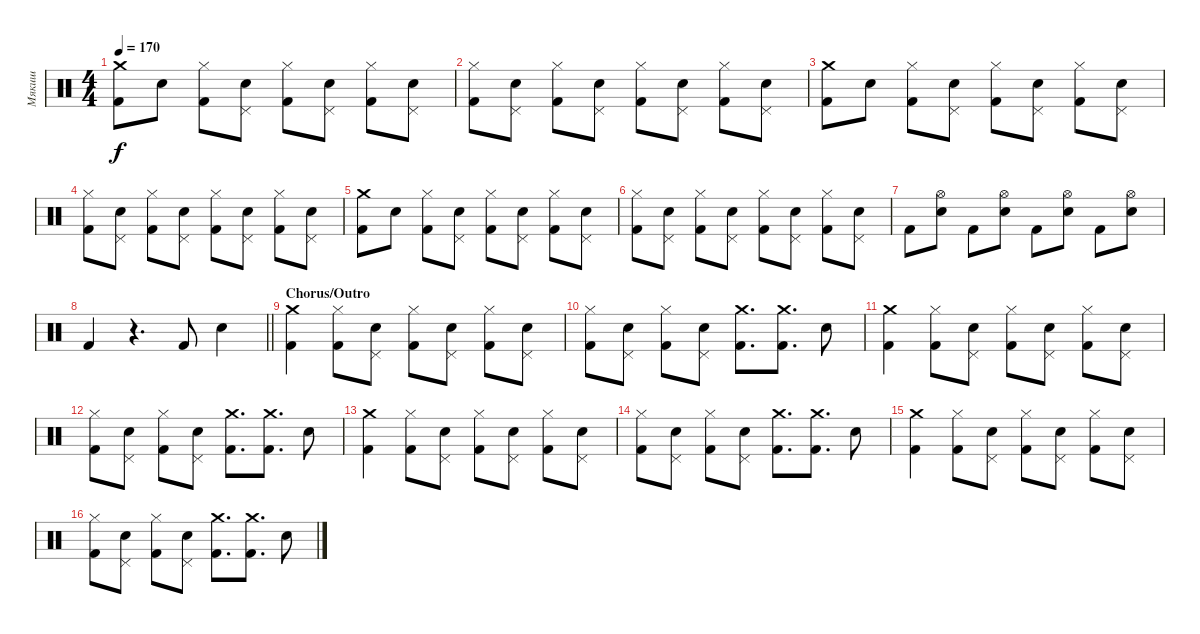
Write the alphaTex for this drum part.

\track ("Мякиш" "Мякиш") {instrument percussion}
\staff {score}
\articulation defaults
\ts (4 4)
\tempo 170
\clef neutral
\ks c
("Crash medium (hit)" "Kick (hit) 2").8{dy f} "Electric Snare (hit)".8 ("Hi-Hat (closed)" "Kick (hit) 2").8 ("Pedal Hi-Hat (hit)" "Electric Snare (hit)").8 ("Hi-Hat (closed)" "Kick (hit) 2").8 ("Pedal Hi-Hat (hit)" "Electric Snare (hit)").8 ("Hi-Hat (closed)" "Kick (hit) 2").8 ("Pedal Hi-Hat (hit)" "Electric Snare (hit)").8 |
("Hi-Hat (closed)" "Kick (hit) 2").8 ("Pedal Hi-Hat (hit)" "Electric Snare (hit)").8 ("Hi-Hat (closed)" "Kick (hit) 2").8 ("Pedal Hi-Hat (hit)" "Electric Snare (hit)").8 ("Hi-Hat (closed)" "Kick (hit) 2").8 ("Pedal Hi-Hat (hit)" "Electric Snare (hit)").8 ("Hi-Hat (closed)" "Kick (hit) 2").8 ("Pedal Hi-Hat (hit)" "Electric Snare (hit)").8 |
("Crash medium (hit)" "Kick (hit) 2").8 "Electric Snare (hit)".8 ("Hi-Hat (closed)" "Kick (hit) 2").8 ("Pedal Hi-Hat (hit)" "Electric Snare (hit)").8 ("Hi-Hat (closed)" "Kick (hit) 2").8 ("Pedal Hi-Hat (hit)" "Electric Snare (hit)").8 ("Hi-Hat (closed)" "Kick (hit) 2").8 ("Pedal Hi-Hat (hit)" "Electric Snare (hit)").8 |
("Hi-Hat (closed)" "Kick (hit) 2").8 ("Pedal Hi-Hat (hit)" "Electric Snare (hit)").8 ("Hi-Hat (closed)" "Kick (hit) 2").8 ("Pedal Hi-Hat (hit)" "Electric Snare (hit)").8 ("Hi-Hat (closed)" "Kick (hit) 2").8 ("Pedal Hi-Hat (hit)" "Electric Snare (hit)").8 ("Hi-Hat (closed)" "Kick (hit) 2").8 ("Pedal Hi-Hat (hit)" "Electric Snare (hit)").8 |
("Crash medium (hit)" "Kick (hit) 2").8 "Electric Snare (hit)".8 ("Hi-Hat (closed)" "Kick (hit) 2").8 ("Pedal Hi-Hat (hit)" "Electric Snare (hit)").8 ("Hi-Hat (closed)" "Kick (hit) 2").8 ("Pedal Hi-Hat (hit)" "Electric Snare (hit)").8 ("Hi-Hat (closed)" "Kick (hit) 2").8 ("Pedal Hi-Hat (hit)" "Electric Snare (hit)").8 |
("Hi-Hat (closed)" "Kick (hit) 2").8 ("Pedal Hi-Hat (hit)" "Electric Snare (hit)").8 ("Hi-Hat (closed)" "Kick (hit) 2").8 ("Pedal Hi-Hat (hit)" "Electric Snare (hit)").8 ("Hi-Hat (closed)" "Kick (hit) 2").8 ("Pedal Hi-Hat (hit)" "Electric Snare (hit)").8 ("Hi-Hat (closed)" "Kick (hit) 2").8 ("Pedal Hi-Hat (hit)" "Electric Snare (hit)").8 |
"Kick (hit) 2".8 ("Hi-Hat (open)" "Electric Snare (hit)").8 "Kick (hit) 2".8 ("Hi-Hat (open)" "Electric Snare (hit)").8 "Kick (hit) 2".8 ("Hi-Hat (open)" "Electric Snare (hit)").8 "Kick (hit) 2".8 ("Hi-Hat (open)" "Electric Snare (hit)").8 |
\barLineRight lightlight "Kick (hit) 2".4
r.4{d} "Kick (hit) 2".8 "Electric Snare (hit)".4 |
\section ("" "Chorus/Outro")
("Crash medium (hit)" "Kick (hit) 2").4 ("Hi-Hat (closed)" "Kick (hit) 2").8 ("Pedal Hi-Hat (hit)" "Electric Snare (hit)").8 ("Hi-Hat (closed)" "Kick (hit) 2").8 ("Pedal Hi-Hat (hit)" "Electric Snare (hit)").8 ("Hi-Hat (closed)" "Kick (hit) 2").8 ("Pedal Hi-Hat (hit)" "Electric Snare (hit)").8 |
("Hi-Hat (closed)" "Kick (hit) 2").8 ("Pedal Hi-Hat (hit)" "Electric Snare (hit)").8 ("Hi-Hat (closed)" "Kick (hit) 2").8 ("Pedal Hi-Hat (hit)" "Electric Snare (hit)").8 ("Crash medium (hit)" "Kick (hit) 2").8{d} ("Crash medium (hit)" "Kick (hit) 2").8{d} "Electric Snare (hit)".8 |
("Crash medium (hit)" "Kick (hit) 2").4 ("Hi-Hat (closed)" "Kick (hit) 2").8 ("Pedal Hi-Hat (hit)" "Electric Snare (hit)").8 ("Hi-Hat (closed)" "Kick (hit) 2").8 ("Pedal Hi-Hat (hit)" "Electric Snare (hit)").8 ("Hi-Hat (closed)" "Kick (hit) 2").8 ("Pedal Hi-Hat (hit)" "Electric Snare (hit)").8 |
("Hi-Hat (closed)" "Kick (hit) 2").8 ("Pedal Hi-Hat (hit)" "Electric Snare (hit)").8 ("Hi-Hat (closed)" "Kick (hit) 2").8 ("Pedal Hi-Hat (hit)" "Electric Snare (hit)").8 ("Crash medium (hit)" "Kick (hit) 2").8{d} ("Crash medium (hit)" "Kick (hit) 2").8{d} "Electric Snare (hit)".8 |
("Crash medium (hit)" "Kick (hit) 2").4 ("Hi-Hat (closed)" "Kick (hit) 2").8 ("Pedal Hi-Hat (hit)" "Electric Snare (hit)").8 ("Hi-Hat (closed)" "Kick (hit) 2").8 ("Pedal Hi-Hat (hit)" "Electric Snare (hit)").8 ("Hi-Hat (closed)" "Kick (hit) 2").8 ("Pedal Hi-Hat (hit)" "Electric Snare (hit)").8 |
("Hi-Hat (closed)" "Kick (hit) 2").8 ("Pedal Hi-Hat (hit)" "Electric Snare (hit)").8 ("Hi-Hat (closed)" "Kick (hit) 2").8 ("Pedal Hi-Hat (hit)" "Electric Snare (hit)").8 ("Crash medium (hit)" "Kick (hit) 2").8{d} ("Crash medium (hit)" "Kick (hit) 2").8{d} "Electric Snare (hit)".8 |
("Crash medium (hit)" "Kick (hit) 2").4 ("Hi-Hat (closed)" "Kick (hit) 2").8 ("Pedal Hi-Hat (hit)" "Electric Snare (hit)").8 ("Hi-Hat (closed)" "Kick (hit) 2").8 ("Pedal Hi-Hat (hit)" "Electric Snare (hit)").8 ("Hi-Hat (closed)" "Kick (hit) 2").8 ("Pedal Hi-Hat (hit)" "Electric Snare (hit)").8 |
("Hi-Hat (closed)" "Kick (hit) 2").8 ("Pedal Hi-Hat (hit)" "Electric Snare (hit)").8 ("Hi-Hat (closed)" "Kick (hit) 2").8 ("Pedal Hi-Hat (hit)" "Electric Snare (hit)").8 ("Crash medium (hit)" "Kick (hit) 2").8{d} ("Crash medium (hit)" "Kick (hit) 2").8{d} "Electric Snare (hit)".8
